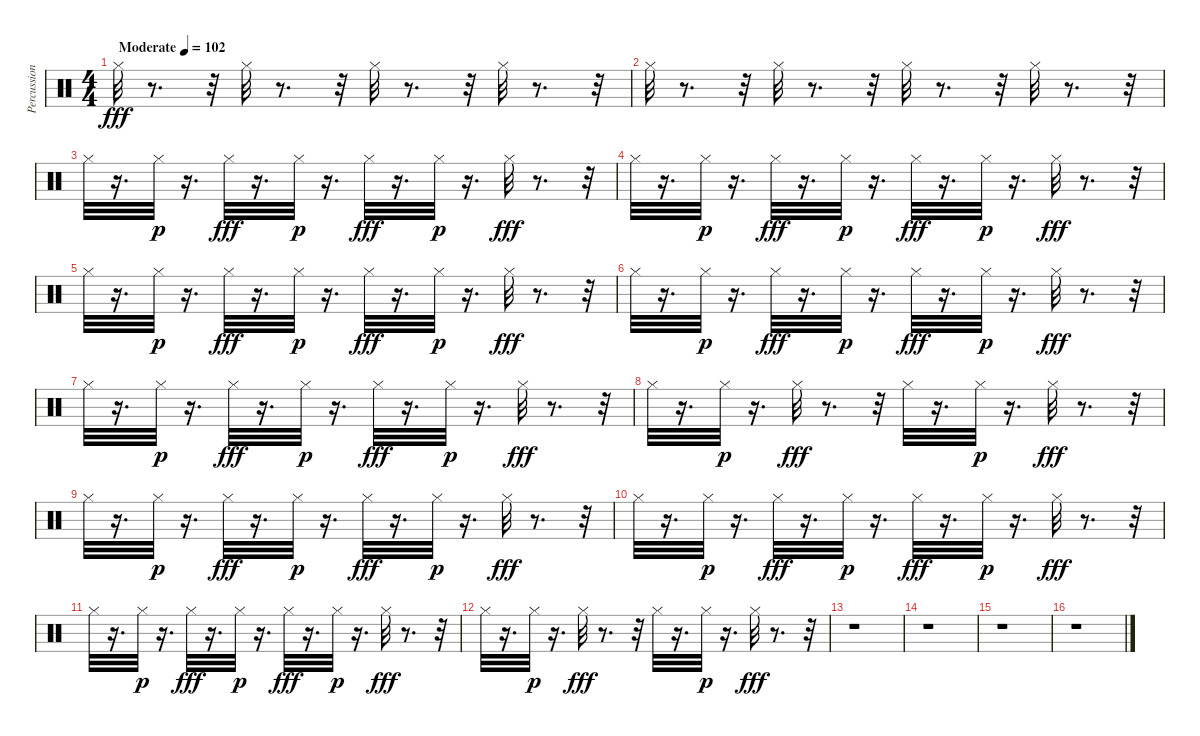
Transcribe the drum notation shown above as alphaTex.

\track ("Percussion" "Percussion") {instrument percussion}
\staff {score}
\articulation defaults
\ts (4 4)
\tempo (102 "Moderate")
\clef neutral
\ks c "Hi-Hat (closed)".32{dy fff}
r.8{d} r.32 "Hi-Hat (closed)".32 r.8{d} r.32 "Hi-Hat (closed)".32 r.8{d} r.32 "Hi-Hat (closed)".32 r.8{d} r.32 |
"Hi-Hat (closed)".32 r.8{d} r.32 "Hi-Hat (closed)".32 r.8{d} r.32 "Hi-Hat (closed)".32 r.8{d} r.32 "Hi-Hat (closed)".32 r.8{d} r.32 |
"Hi-Hat (closed)".32 r.16{d} "Hi-Hat (closed)".32{dy p} r.16{d} "Hi-Hat (closed)".32{dy fff} r.16{d} "Hi-Hat (closed)".32{dy p} r.16{d} "Hi-Hat (closed)".32{dy fff} r.16{d} "Hi-Hat (closed)".32{dy p} r.16{d} "Hi-Hat (closed)".32{dy fff} r.8{d} r.32 |
"Hi-Hat (closed)".32 r.16{d} "Hi-Hat (closed)".32{dy p} r.16{d} "Hi-Hat (closed)".32{dy fff} r.16{d} "Hi-Hat (closed)".32{dy p} r.16{d} "Hi-Hat (closed)".32{dy fff} r.16{d} "Hi-Hat (closed)".32{dy p} r.16{d} "Hi-Hat (closed)".32{dy fff} r.8{d} r.32 |
"Hi-Hat (closed)".32 r.16{d} "Hi-Hat (closed)".32{dy p} r.16{d} "Hi-Hat (closed)".32{dy fff} r.16{d} "Hi-Hat (closed)".32{dy p} r.16{d} "Hi-Hat (closed)".32{dy fff} r.16{d} "Hi-Hat (closed)".32{dy p} r.16{d} "Hi-Hat (closed)".32{dy fff} r.8{d} r.32 |
"Hi-Hat (closed)".32 r.16{d} "Hi-Hat (closed)".32{dy p} r.16{d} "Hi-Hat (closed)".32{dy fff} r.16{d} "Hi-Hat (closed)".32{dy p} r.16{d} "Hi-Hat (closed)".32{dy fff} r.16{d} "Hi-Hat (closed)".32{dy p} r.16{d} "Hi-Hat (closed)".32{dy fff} r.8{d} r.32 |
"Hi-Hat (closed)".32 r.16{d} "Hi-Hat (closed)".32{dy p} r.16{d} "Hi-Hat (closed)".32{dy fff} r.16{d} "Hi-Hat (closed)".32{dy p} r.16{d} "Hi-Hat (closed)".32{dy fff} r.16{d} "Hi-Hat (closed)".32{dy p} r.16{d} "Hi-Hat (closed)".32{dy fff} r.8{d} r.32 |
"Hi-Hat (closed)".32 r.16{d} "Hi-Hat (closed)".32{dy p} r.16{d} "Hi-Hat (closed)".32{dy fff} r.8{d} r.32 "Hi-Hat (closed)".32 r.16{d} "Hi-Hat (closed)".32{dy p} r.16{d} "Hi-Hat (closed)".32{dy fff} r.8{d} r.32 |
"Hi-Hat (closed)".32 r.16{d} "Hi-Hat (closed)".32{dy p} r.16{d} "Hi-Hat (closed)".32{dy fff} r.16{d} "Hi-Hat (closed)".32{dy p} r.16{d} "Hi-Hat (closed)".32{dy fff} r.16{d} "Hi-Hat (closed)".32{dy p} r.16{d} "Hi-Hat (closed)".32{dy fff} r.8{d} r.32 |
"Hi-Hat (closed)".32 r.16{d} "Hi-Hat (closed)".32{dy p} r.16{d} "Hi-Hat (closed)".32{dy fff} r.16{d} "Hi-Hat (closed)".32{dy p} r.16{d} "Hi-Hat (closed)".32{dy fff} r.16{d} "Hi-Hat (closed)".32{dy p} r.16{d} "Hi-Hat (closed)".32{dy fff} r.8{d} r.32 |
"Hi-Hat (closed)".32 r.16{d} "Hi-Hat (closed)".32{dy p} r.16{d} "Hi-Hat (closed)".32{dy fff} r.16{d} "Hi-Hat (closed)".32{dy p} r.16{d} "Hi-Hat (closed)".32{dy fff} r.16{d} "Hi-Hat (closed)".32{dy p} r.16{d} "Hi-Hat (closed)".32{dy fff} r.8{d} r.32 |
"Hi-Hat (closed)".32 r.16{d} "Hi-Hat (closed)".32{dy p} r.16{d} "Hi-Hat (closed)".32{dy fff} r.8{d} r.32 "Hi-Hat (closed)".32 r.16{d} "Hi-Hat (closed)".32{dy p} r.16{d} "Hi-Hat (closed)".32{dy fff} r.8{d} r.32 |
r.1 |
r.1 |
r.1 |
r.1
